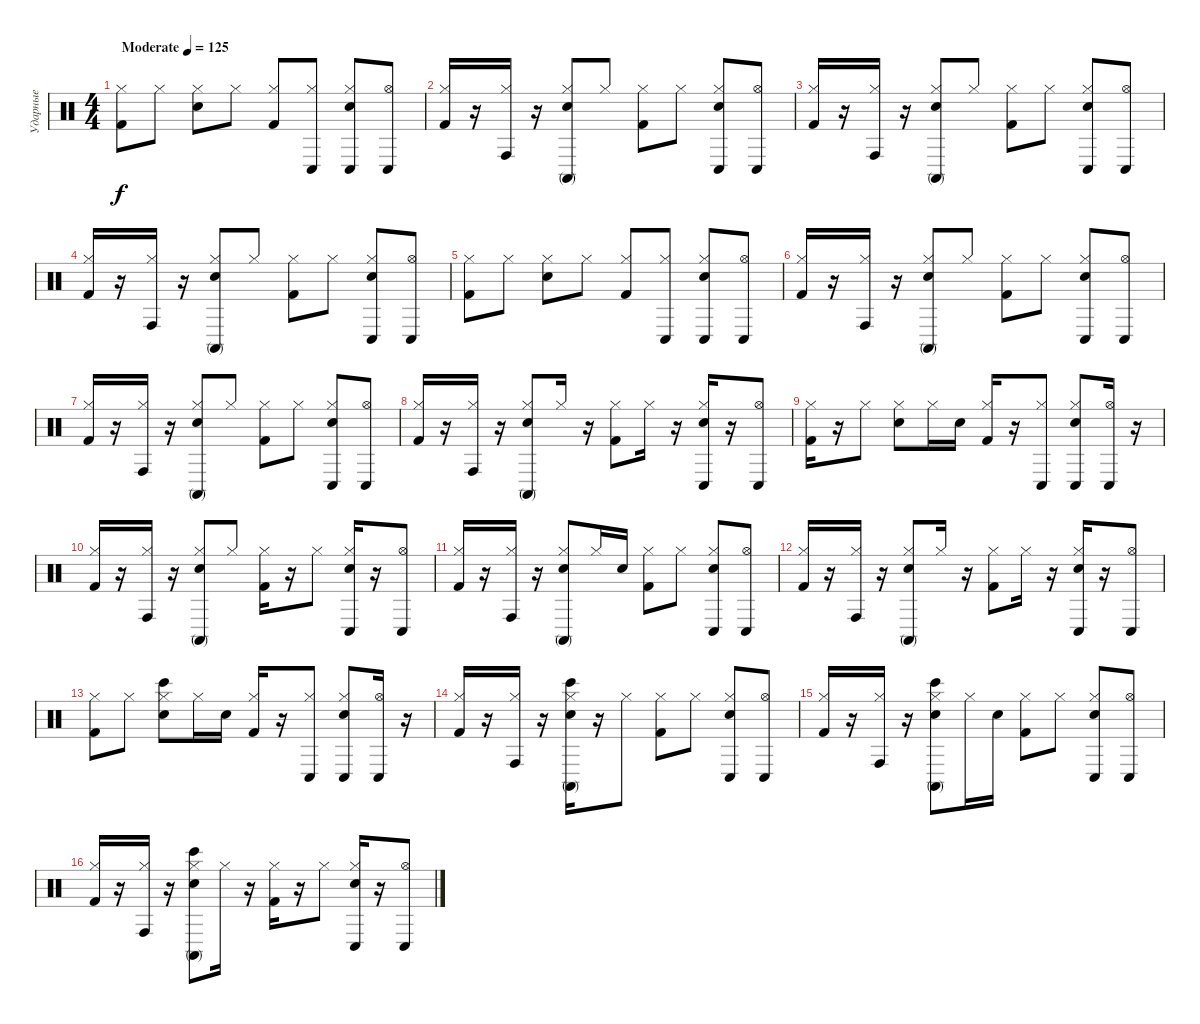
\track ("Ударные" "Ударные") {instrument percussion}
\staff {score}
\articulation defaults
\ts (4 4)
\tempo (125 "Moderate")
\clef neutral
\ks c
("Hi-Hat (closed)" "Kick (hit) 2").8{dy f} "Hi-Hat (closed)".8 ("Hi-Hat (closed)" "Electric Snare (hit)").8 "Hi-Hat (closed)".8 ("Hi-Hat (closed)" "Kick (hit) 2").8 ("Hi-Hat (closed)" "Conga low (hit)").8 ("Hi-Hat (closed)" "Conga low (hit)" "Electric Snare (hit)").8 ("Hi-Hat (open)" "Conga low (hit)").8 |
("Hi-Hat (closed)" "Kick (hit) 2").16 r.16 ("Hi-Hat (closed)" "Conga high (hit)").16 r.16 ("Hi-Hat (closed)" "Conga high (mute)" "Electric Snare (hit)").8 "Hi-Hat (closed)".8 ("Hi-Hat (closed)" "Kick (hit) 2").8 "Hi-Hat (closed)".8 ("Hi-Hat (closed)" "Conga low (hit)" "Electric Snare (hit)").8 ("Hi-Hat (open)" "Conga low (hit)").8 |
("Hi-Hat (closed)" "Kick (hit) 2").16 r.16 ("Hi-Hat (closed)" "Conga high (hit)").16 r.16 ("Hi-Hat (closed)" "Conga high (mute)" "Electric Snare (hit)").8 "Hi-Hat (closed)".8 ("Hi-Hat (closed)" "Kick (hit) 2").8 "Hi-Hat (closed)".8 ("Hi-Hat (closed)" "Conga low (hit)" "Electric Snare (hit)").8 ("Hi-Hat (open)" "Conga low (hit)").8 |
("Hi-Hat (closed)" "Kick (hit) 2").16 r.16 ("Hi-Hat (closed)" "Conga high (hit)").16 r.16 ("Hi-Hat (closed)" "Conga high (mute)" "Electric Snare (hit)").8 "Hi-Hat (closed)".8 ("Hi-Hat (closed)" "Kick (hit) 2").8 "Hi-Hat (closed)".8 ("Hi-Hat (closed)" "Conga low (hit)" "Electric Snare (hit)").8 ("Hi-Hat (open)" "Conga low (hit)").8 |
("Hi-Hat (closed)" "Kick (hit) 2").8 "Hi-Hat (closed)".8 ("Hi-Hat (closed)" "Electric Snare (hit)").8 "Hi-Hat (closed)".8 ("Hi-Hat (closed)" "Kick (hit) 2").8 ("Hi-Hat (closed)" "Conga low (hit)").8 ("Hi-Hat (closed)" "Conga low (hit)" "Electric Snare (hit)").8 ("Hi-Hat (open)" "Conga low (hit)").8 |
("Hi-Hat (closed)" "Kick (hit) 2").16 r.16 ("Hi-Hat (closed)" "Conga high (hit)").16 r.16 ("Hi-Hat (closed)" "Conga high (mute)" "Electric Snare (hit)").8 "Hi-Hat (closed)".8 ("Hi-Hat (closed)" "Kick (hit) 2").8 "Hi-Hat (closed)".8 ("Hi-Hat (closed)" "Conga low (hit)" "Electric Snare (hit)").8 ("Hi-Hat (open)" "Conga low (hit)").8 |
("Hi-Hat (closed)" "Kick (hit) 2").16 r.16 ("Hi-Hat (closed)" "Conga high (hit)").16 r.16 ("Hi-Hat (closed)" "Conga high (mute)" "Electric Snare (hit)").8 "Hi-Hat (closed)".8 ("Hi-Hat (closed)" "Kick (hit) 2").8 "Hi-Hat (closed)".8 ("Hi-Hat (closed)" "Conga low (hit)" "Electric Snare (hit)").8 ("Hi-Hat (open)" "Conga low (hit)").8 |
("Hi-Hat (closed)" "Kick (hit) 2").16 r.16 ("Hi-Hat (closed)" "Conga high (hit)").16 r.16 ("Hi-Hat (closed)" "Conga high (mute)" "Electric Snare (hit)").8 "Hi-Hat (closed)".16 r.16 ("Hi-Hat (closed)" "Kick (hit) 2").8 "Hi-Hat (closed)".16 r.16 ("Hi-Hat (closed)" "Conga low (hit)" "Electric Snare (hit)").16 r.16 ("Hi-Hat (open)" "Conga low (hit)").8 |
("Hi-Hat (closed)" "Kick (hit) 2").16 r.16 "Hi-Hat (closed)".8 ("Hi-Hat (closed)" "Electric Snare (hit)").8 "Hi-Hat (closed)".16 "Electric Snare (hit)".16 ("Hi-Hat (closed)" "Kick (hit) 2").16 r.16 ("Hi-Hat (closed)" "Conga low (hit)").8 ("Hi-Hat (closed)" "Conga low (hit)" "Electric Snare (hit)").8 ("Hi-Hat (open)" "Conga low (hit)").16 r.16 |
("Hi-Hat (closed)" "Kick (hit) 2").16 r.16 ("Hi-Hat (closed)" "Conga high (hit)").16 r.16 ("Hi-Hat (closed)" "Conga high (mute)" "Electric Snare (hit)").8 "Hi-Hat (closed)".8 ("Hi-Hat (closed)" "Kick (hit) 2").16 r.16 "Hi-Hat (closed)".8 ("Hi-Hat (closed)" "Conga low (hit)" "Electric Snare (hit)").16 r.16 ("Hi-Hat (open)" "Conga low (hit)").8 |
("Hi-Hat (closed)" "Kick (hit) 2").16 r.16 ("Hi-Hat (closed)" "Conga high (hit)").16 r.16 ("Hi-Hat (closed)" "Conga high (mute)" "Electric Snare (hit)").8 "Hi-Hat (closed)".16 "Electric Snare (hit)".16 ("Hi-Hat (closed)" "Kick (hit) 2").8 "Hi-Hat (closed)".8 ("Hi-Hat (closed)" "Conga low (hit)" "Electric Snare (hit)").8 ("Hi-Hat (open)" "Conga low (hit)").8 |
("Hi-Hat (closed)" "Kick (hit) 2").16 r.16 ("Hi-Hat (closed)" "Conga high (hit)").16 r.16 ("Hi-Hat (closed)" "Conga high (mute)" "Electric Snare (hit)").8 "Hi-Hat (closed)".16 r.16 ("Hi-Hat (closed)" "Kick (hit) 2").8 "Hi-Hat (closed)".16 r.16 ("Hi-Hat (closed)" "Conga low (hit)" "Electric Snare (hit)").16 r.16 ("Hi-Hat (open)" "Conga low (hit)").8 |
("Hi-Hat (closed)" "Kick (hit) 2").8 "Hi-Hat (closed)".8 ("Hi-Hat (closed)" "Bongo High (hit)" "Electric Snare (hit)").8 "Hi-Hat (closed)".16 "Electric Snare (hit)".16 ("Hi-Hat (closed)" "Kick (hit) 2").16 r.16 ("Hi-Hat (closed)" "Conga low (hit)").8 ("Hi-Hat (closed)" "Conga low (hit)" "Electric Snare (hit)").8 ("Hi-Hat (open)" "Conga low (hit)").16 r.16 |
("Hi-Hat (closed)" "Kick (hit) 2").16 r.16 ("Hi-Hat (closed)" "Conga high (hit)").16 r.16 ("Hi-Hat (closed)" "Bongo High (hit)" "Conga high (mute)" "Electric Snare (hit)").16 r.16 "Hi-Hat (closed)".8 ("Hi-Hat (closed)" "Kick (hit) 2").8 "Hi-Hat (closed)".8 ("Hi-Hat (closed)" "Conga low (hit)" "Electric Snare (hit)").8 ("Hi-Hat (open)" "Conga low (hit)").8 |
("Hi-Hat (closed)" "Kick (hit) 2").16 r.16 ("Hi-Hat (closed)" "Conga high (hit)").16 r.16 ("Hi-Hat (closed)" "Bongo High (hit)" "Conga high (mute)" "Electric Snare (hit)").8 "Hi-Hat (closed)".16 "Electric Snare (hit)".16 ("Hi-Hat (closed)" "Kick (hit) 2").8 "Hi-Hat (closed)".8 ("Hi-Hat (closed)" "Conga low (hit)" "Electric Snare (hit)").8 ("Hi-Hat (open)" "Conga low (hit)").8 |
("Hi-Hat (closed)" "Kick (hit) 2").16 r.16 ("Hi-Hat (closed)" "Conga high (hit)").16 r.16 ("Hi-Hat (closed)" "Bongo High (hit)" "Conga high (mute)" "Electric Snare (hit)").8 "Hi-Hat (closed)".16 r.16 ("Hi-Hat (closed)" "Kick (hit) 2").16 r.16 "Hi-Hat (closed)".8 ("Hi-Hat (closed)" "Conga low (hit)" "Electric Snare (hit)").16 r.16 ("Hi-Hat (open)" "Conga low (hit)").8
